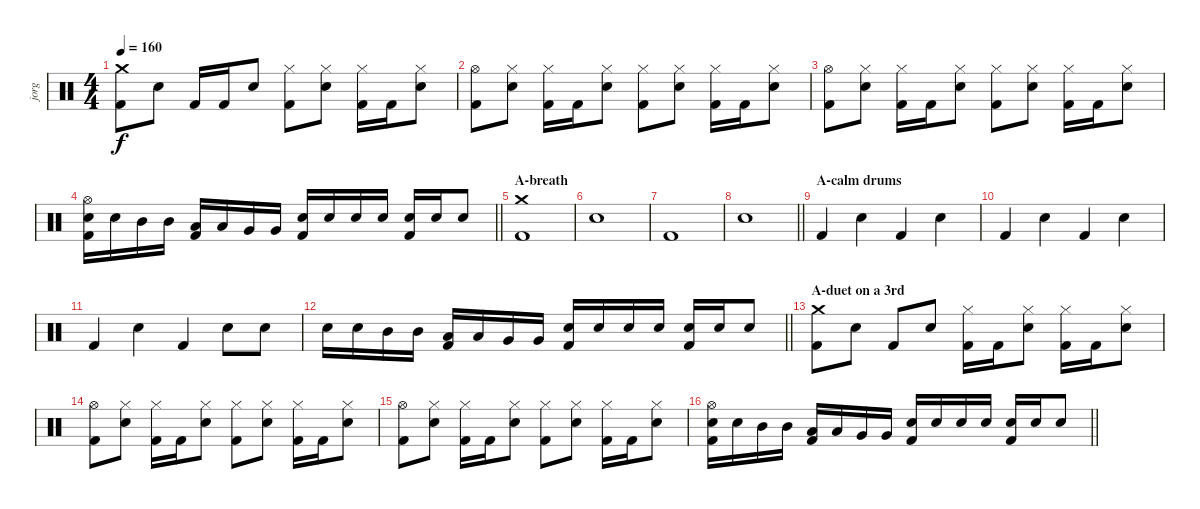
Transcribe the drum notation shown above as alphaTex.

\track ("jorg" "jorg") {instrument percussion}
\staff {score}
\articulation defaults
\ts (4 4)
\tempo 160
\clef neutral
\ks c
("Crash medium (hit)" "Kick (hit) 2").8{dy f} "Electric Snare (hit)".8 "Kick (hit) 2".16 "Kick (hit) 2".16 "Electric Snare (hit)".8 ("Hi-Hat (closed)" "Kick (hit) 2").8 ("Hi-Hat (closed)" "Electric Snare (hit)").8 ("Hi-Hat (closed)" "Kick (hit) 2").16 "Kick (hit) 2".16 ("Hi-Hat (closed)" "Electric Snare (hit)").8 |
("Hi-Hat (open)" "Kick (hit) 2").8 ("Hi-Hat (closed)" "Electric Snare (hit)").8 ("Hi-Hat (closed)" "Kick (hit) 2").16 "Kick (hit) 2".16 ("Hi-Hat (closed)" "Electric Snare (hit)").8 ("Hi-Hat (closed)" "Kick (hit) 2").8 ("Hi-Hat (closed)" "Electric Snare (hit)").8 ("Hi-Hat (closed)" "Kick (hit) 2").16 "Kick (hit) 2".16 ("Hi-Hat (closed)" "Electric Snare (hit)").8 |
("Hi-Hat (open)" "Kick (hit) 2").8 ("Hi-Hat (closed)" "Electric Snare (hit)").8 ("Hi-Hat (closed)" "Kick (hit) 2").16 "Kick (hit) 2".16 ("Hi-Hat (closed)" "Electric Snare (hit)").8 ("Hi-Hat (closed)" "Kick (hit) 2").8 ("Hi-Hat (closed)" "Electric Snare (hit)").8 ("Hi-Hat (closed)" "Kick (hit) 2").16 "Kick (hit) 2".16 ("Hi-Hat (closed)" "Electric Snare (hit)").8 |
\barLineRight lightlight
("Hi-Hat (open)" "Electric Snare (hit)" "Kick (hit) 2").16 "Electric Snare (hit)".16 "Mid Tom (hit)".16 "Mid Tom (hit)".16 ("Low Tom (hit)" "Kick (hit) 2").16 "Low Tom (hit)".16 "Very Low Tom (hit)".16 "Very Low Tom (hit)".16 ("Electric Snare (hit)" "Kick (hit) 2").16 "Electric Snare (hit)".16 "Electric Snare (hit)".16 "Electric Snare (hit)".16 ("Electric Snare (hit)" "Kick (hit) 2").16 "Electric Snare (hit)".16 "Electric Snare (hit)".8 |
\section ("" "A-breath")
("Crash medium (hit)" "Kick (hit) 2").1 |
"Electric Snare (hit)".1 |
"Kick (hit) 2".1 |
\barLineRight lightlight "Electric Snare (hit)".1
|
\section ("" "A-calm drums")
"Kick (hit) 2".4 "Electric Snare (hit)".4 "Kick (hit) 2".4 "Electric Snare (hit)".4 |
"Kick (hit) 2".4 "Electric Snare (hit)".4 "Kick (hit) 2".4 "Electric Snare (hit)".4 |
"Kick (hit) 2".4 "Electric Snare (hit)".4 "Kick (hit) 2".4 "Electric Snare (hit)".8 "Electric Snare (hit)".8 |
\barLineRight lightlight "Electric Snare (hit)".16 "Electric Snare (hit)".16 "Mid Tom (hit)".16 "Mid Tom (hit)".16
("Low Tom (hit)" "Kick (hit) 2").16 "Low Tom (hit)".16 "Very Low Tom (hit)".16 "Very Low Tom (hit)".16 ("Electric Snare (hit)" "Kick (hit) 2").16 "Electric Snare (hit)".16 "Electric Snare (hit)".16 "Electric Snare (hit)".16 ("Electric Snare (hit)" "Kick (hit) 2").16 "Electric Snare (hit)".16 "Electric Snare (hit)".8 |
\section ("" "A-duet on a 3rd")
("Crash medium (hit)" "Kick (hit) 2").8 "Electric Snare (hit)".8 "Kick (hit) 2".8 "Electric Snare (hit)".8 ("Hi-Hat (closed)" "Kick (hit) 2").16 "Kick (hit) 2".16 ("Hi-Hat (closed)" "Electric Snare (hit)").8 ("Hi-Hat (closed)" "Kick (hit) 2").16 "Kick (hit) 2".16 ("Hi-Hat (closed)" "Electric Snare (hit)").8 |
("Hi-Hat (open)" "Kick (hit) 2").8 ("Hi-Hat (closed)" "Electric Snare (hit)").8 ("Hi-Hat (closed)" "Kick (hit) 2").16 "Kick (hit) 2".16 ("Hi-Hat (closed)" "Electric Snare (hit)").8 ("Hi-Hat (closed)" "Kick (hit) 2").8 ("Hi-Hat (closed)" "Electric Snare (hit)").8 ("Hi-Hat (closed)" "Kick (hit) 2").16 "Kick (hit) 2".16 ("Hi-Hat (closed)" "Electric Snare (hit)").8 |
("Hi-Hat (open)" "Kick (hit) 2").8 ("Hi-Hat (closed)" "Electric Snare (hit)").8 ("Hi-Hat (closed)" "Kick (hit) 2").16 "Kick (hit) 2".16 ("Hi-Hat (closed)" "Electric Snare (hit)").8 ("Hi-Hat (closed)" "Kick (hit) 2").8 ("Hi-Hat (closed)" "Electric Snare (hit)").8 ("Hi-Hat (closed)" "Kick (hit) 2").16 "Kick (hit) 2".16 ("Hi-Hat (closed)" "Electric Snare (hit)").8 |
\barLineRight lightlight
("Hi-Hat (open)" "Electric Snare (hit)" "Kick (hit) 2").16 "Electric Snare (hit)".16 "Mid Tom (hit)".16 "Mid Tom (hit)".16 ("Low Tom (hit)" "Kick (hit) 2").16 "Low Tom (hit)".16 "Very Low Tom (hit)".16 "Very Low Tom (hit)".16 ("Electric Snare (hit)" "Kick (hit) 2").16 "Electric Snare (hit)".16 "Electric Snare (hit)".16 "Electric Snare (hit)".16 ("Electric Snare (hit)" "Kick (hit) 2").16 "Electric Snare (hit)".16 "Electric Snare (hit)".8
